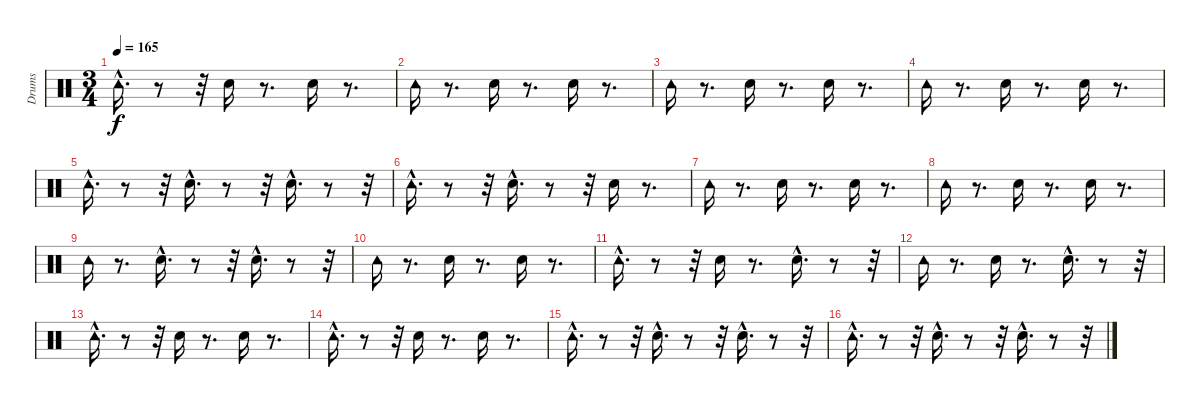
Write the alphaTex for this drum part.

\track ("Drums" "Drums") {instrument percussion}
\staff {score}
\articulation defaults
\ts (3 4)
\tempo 165
\clef neutral
\ks c "Tambourine (hit)"{hac}.16{d dy f}
r.8 r.32 "Snare (hit)".16 r.8{d} "Snare (hit)".16 r.8{d} |
"Tambourine (hit)".16 r.8{d} "Snare (hit)".16 r.8{d} "Snare (hit)".16 r.8{d} |
"Tambourine (hit)".16 r.8{d} "Snare (hit)".16 r.8{d} "Snare (hit)".16 r.8{d} |
"Tambourine (hit)".16 r.8{d} "Snare (hit)".16 r.8{d} "Snare (hit)".16 r.8{d} |
"Tambourine (hit)"{hac}.16{d} r.8 r.32 "Snare (hit)"{hac}.16{d} r.8 r.32 "Snare (hit)"{hac}.16{d} r.8 r.32 |
"Tambourine (hit)"{hac}.16{d} r.8 r.32 "Snare (hit)"{hac}.16{d} r.8 r.32 "Snare (hit)".16 r.8{d} |
"Tambourine (hit)".16 r.8{d} "Snare (hit)".16 r.8{d} "Snare (hit)".16 r.8{d} |
"Tambourine (hit)".16 r.8{d} "Snare (hit)".16 r.8{d} "Snare (hit)".16 r.8{d} |
"Tambourine (hit)".16 r.8{d} "Snare (hit)"{hac}.16{d} r.8 r.32 "Snare (hit)"{hac}.16{d} r.8 r.32 |
"Tambourine (hit)".16 r.8{d} "Snare (hit)".16 r.8{d} "Snare (hit)".16 r.8{d} |
"Tambourine (hit)"{hac}.16{d} r.8 r.32 "Snare (hit)".16 r.8{d} "Snare (hit)"{hac}.16{d} r.8 r.32 |
"Tambourine (hit)".16 r.8{d} "Snare (hit)".16 r.8{d} "Snare (hit)"{hac}.16{d} r.8 r.32 |
"Tambourine (hit)"{hac}.16{d} r.8 r.32 "Snare (hit)".16 r.8{d} "Snare (hit)".16 r.8{d} |
"Tambourine (hit)"{hac}.16{d} r.8 r.32 "Snare (hit)".16 r.8{d} "Snare (hit)".16 r.8{d} |
"Tambourine (hit)"{hac}.16{d} r.8 r.32 "Snare (hit)"{hac}.16{d} r.8 r.32 "Snare (hit)"{hac}.16{d} r.8 r.32 |
"Tambourine (hit)"{hac}.16{d} r.8 r.32 "Snare (hit)"{hac}.16{d} r.8 r.32 "Snare (hit)"{hac}.16{d} r.8 r.32
